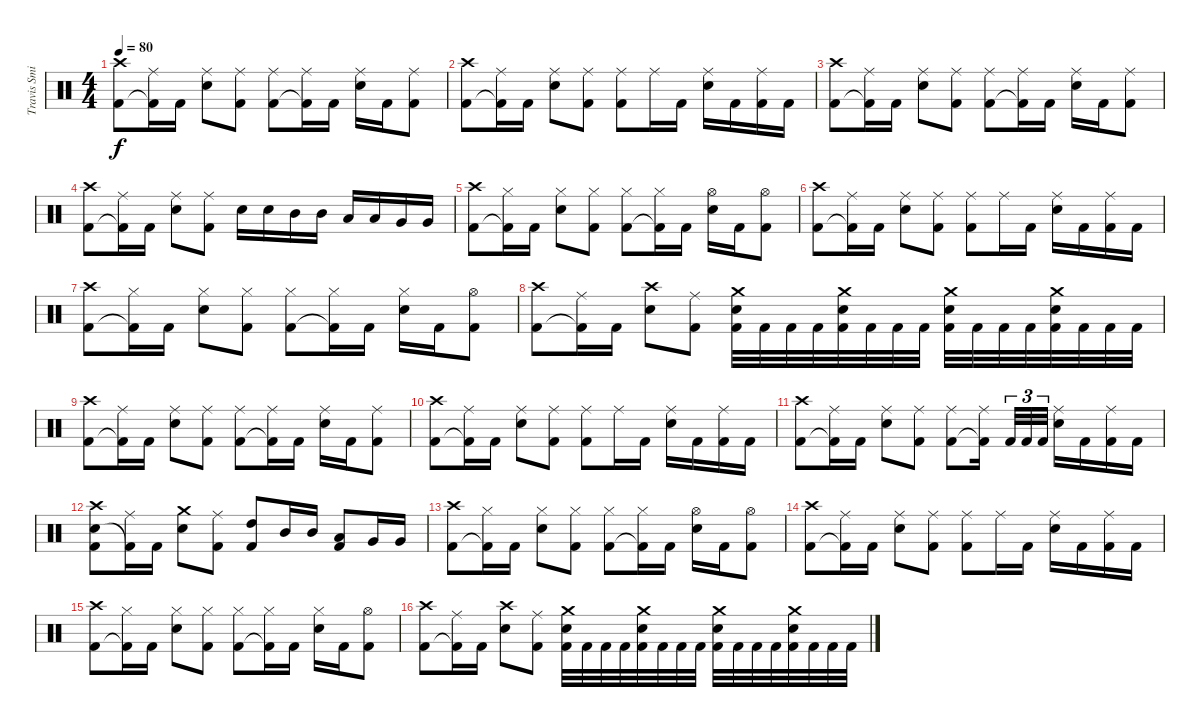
\track ("Travis Smith" "Travis Smi") {instrument percussion}
\staff {score}
\articulation defaults
\ts (4 4)
\tempo 80
\clef neutral
\ks c
("Crash high (hit)" "Kick (hit) 2").8{dy f} ("Ride (middle)" "Kick (hit) 2"{t}).16 "Kick (hit) 2".16 ("Ride (middle)" "Snare (hit) 2").8 ("Ride (middle)" "Kick (hit) 2").8 ("Ride (middle)" "Kick (hit) 2").8 ("Ride (middle)" "Kick (hit) 2"{t}).16 "Kick (hit) 2".16 ("Ride (middle)" "Snare (hit) 2").16 "Kick (hit) 2".16 ("Ride (middle)" "Kick (hit) 2").8 |
("Crash high (hit)" "Kick (hit) 2").8 ("Ride (middle)" "Kick (hit) 2"{t}).16 "Kick (hit) 2".16 ("Ride (middle)" "Snare (hit) 2").8 ("Ride (middle)" "Kick (hit) 2").8 ("Ride (middle)" "Kick (hit) 2").8 "Ride (middle)".16 "Kick (hit) 2".16 ("Ride (middle)" "Snare (hit) 2").16 "Kick (hit) 2".16 ("Ride (middle)" "Kick (hit) 2").16 "Kick (hit) 2".16 |
("Crash high (hit)" "Kick (hit) 2").8 ("Ride (middle)" "Kick (hit) 2"{t}).16 "Kick (hit) 2".16 ("Ride (middle)" "Snare (hit) 2").8 ("Ride (middle)" "Kick (hit) 2").8 ("Ride (middle)" "Kick (hit) 2").8 ("Ride (middle)" "Kick (hit) 2"{t}).16 "Kick (hit) 2".16 ("Ride (middle)" "Snare (hit) 2").16 "Kick (hit) 2".16 ("Ride (middle)" "Kick (hit) 2").8 |
("Crash high (hit)" "Kick (hit) 2").8 ("Ride (middle)" "Kick (hit) 2"{t}).16 "Kick (hit) 2".16 ("Ride (middle)" "Snare (hit) 2").8 ("Ride (middle)" "Kick (hit) 2").8 "Snare (hit) 2".16 "Snare (hit) 2".16 "Mid Tom (hit)".16 "Mid Tom (hit)".16 "Low Tom (hit)".16 "Low Tom (hit)".16 "Very Low Tom (hit)".16 "Very Low Tom (hit)".16 |
("Crash high (hit)" "Kick (hit) 2").8 ("Hi-Hat (closed)" "Kick (hit) 2"{t}).16 "Kick (hit) 2".16 ("Hi-Hat (closed)" "Snare (hit) 2").8 ("Hi-Hat (closed)" "Kick (hit) 2").8 ("Hi-Hat (closed)" "Kick (hit) 2").8 ("Hi-Hat (closed)" "Kick (hit) 2"{t}).16 "Kick (hit) 2".16 ("Hi-Hat (open)" "Snare (hit) 2").16 "Kick (hit) 2".16 ("Hi-Hat (open)" "Kick (hit) 2").8 |
("Crash high (hit)" "Kick (hit) 2").8 ("Ride (middle)" "Kick (hit) 2"{t}).16 "Kick (hit) 2".16 ("Ride (middle)" "Snare (hit) 2").8 ("Ride (middle)" "Kick (hit) 2").8 ("Ride (middle)" "Kick (hit) 2").8 "Ride (middle)".16 "Kick (hit) 2".16 ("Ride (middle)" "Snare (hit) 2").16 "Kick (hit) 2".16 ("Ride (middle)" "Kick (hit) 2").16 "Kick (hit) 2".16 |
("Crash high (hit)" "Kick (hit) 2").8 ("Hi-Hat (closed)" "Kick (hit) 2"{t}).16 "Kick (hit) 2".16 ("Hi-Hat (closed)" "Snare (hit) 2").8 ("Hi-Hat (closed)" "Kick (hit) 2").8 ("Hi-Hat (closed)" "Kick (hit) 2").8 ("Hi-Hat (closed)" "Kick (hit) 2"{t}).16 "Kick (hit) 2".16 ("Hi-Hat (closed)" "Snare (hit) 2").16 "Kick (hit) 2".16 ("Hi-Hat (open)" "Kick (hit) 2").8 |
("Crash high (hit)" "Kick (hit) 2").8 ("Ride (middle)" "Kick (hit) 2"{t}).16 "Kick (hit) 2".16 ("Crash high (hit)" "Snare (hit) 2").8 ("Ride (middle)" "Kick (hit) 2").8 ("Crash medium (hit)" "Snare (hit) 2" "Kick (hit) 2").32 "Kick (hit) 2".32 "Kick (hit) 2".32 "Kick (hit) 2".32 ("Crash medium (hit)" "Snare (hit) 2" "Kick (hit) 2").32 "Kick (hit) 2".32 "Kick (hit) 2".32 "Kick (hit) 2".32 ("Crash medium (hit)" "Snare (hit) 2" "Kick (hit) 2").32 "Kick (hit) 2".32 "Kick (hit) 2".32 "Kick (hit) 2".32 ("Crash medium (hit)" "Snare (hit) 2" "Kick (hit) 2").32 "Kick (hit) 2".32 "Kick (hit) 2".32 "Kick (hit) 2".32 |
("Crash high (hit)" "Kick (hit) 2").8 ("Ride (middle)" "Kick (hit) 2"{t}).16 "Kick (hit) 2".16 ("Ride (middle)" "Snare (hit) 2").8 ("Ride (middle)" "Kick (hit) 2").8 ("Ride (middle)" "Kick (hit) 2").8 ("Ride (middle)" "Kick (hit) 2"{t}).16 "Kick (hit) 2".16 ("Ride (middle)" "Snare (hit) 2").16 "Kick (hit) 2".16 ("Ride (middle)" "Kick (hit) 2").8 |
("Crash high (hit)" "Kick (hit) 2").8 ("Ride (middle)" "Kick (hit) 2"{t}).16 "Kick (hit) 2".16 ("Ride (middle)" "Snare (hit) 2").8 ("Ride (middle)" "Kick (hit) 2").8 ("Ride (middle)" "Kick (hit) 2").8 "Ride (middle)".16 "Kick (hit) 2".16 ("Ride (middle)" "Snare (hit) 2").16 "Kick (hit) 2".16 ("Ride (middle)" "Kick (hit) 2").16 "Kick (hit) 2".16 |
("Crash high (hit)" "Kick (hit) 2").8 ("Ride (middle)" "Kick (hit) 2"{t}).16 "Kick (hit) 2".16 ("Ride (middle)" "Snare (hit) 2").8 ("Ride (middle)" "Kick (hit) 2").8 ("Ride (middle)" "Kick (hit) 2").8 ("Ride (middle)" "Kick (hit) 2"{t}).16{beam splitsecondary} "Kick (hit) 2".32{tu (3 2)} "Kick (hit) 2".32{tu (3 2)} "Kick (hit) 2".32{tu (3 2)} ("Ride (middle)" "Snare (hit) 2").16 "Kick (hit) 2".16 ("Ride (middle)" "Kick (hit) 2").16 "Kick (hit) 2".16 |
("Crash high (hit)" "Snare (hit) 2" "Kick (hit) 2").8 ("Ride (middle)" "Kick (hit) 2"{t}).16 "Kick (hit) 2".16 ("Crash medium (hit)" "Snare (hit) 2").8 ("Ride (middle)" "Kick (hit) 2").8 ("High Tom (hit)" "Kick (hit) 2").8 "Mid Tom (hit)".16 "Mid Tom (hit)".16 ("Low Tom (hit)" "Kick (hit) 2").8 "Very Low Tom (hit)".16 "Very Low Tom (hit)".16 |
("Crash high (hit)" "Kick (hit) 2").8 ("Hi-Hat (closed)" "Kick (hit) 2"{t}).16 "Kick (hit) 2".16 ("Hi-Hat (closed)" "Snare (hit) 2").8 ("Hi-Hat (closed)" "Kick (hit) 2").8 ("Hi-Hat (closed)" "Kick (hit) 2").8 ("Hi-Hat (closed)" "Kick (hit) 2"{t}).16 "Kick (hit) 2".16 ("Hi-Hat (open)" "Snare (hit) 2").16 "Kick (hit) 2".16 ("Hi-Hat (open)" "Kick (hit) 2").8 |
("Crash high (hit)" "Kick (hit) 2").8 ("Ride (middle)" "Kick (hit) 2"{t}).16 "Kick (hit) 2".16 ("Ride (middle)" "Snare (hit) 2").8 ("Ride (middle)" "Kick (hit) 2").8 ("Ride (middle)" "Kick (hit) 2").8 "Ride (middle)".16 "Kick (hit) 2".16 ("Ride (middle)" "Snare (hit) 2").16 "Kick (hit) 2".16 ("Ride (middle)" "Kick (hit) 2").16 "Kick (hit) 2".16 |
("Crash high (hit)" "Kick (hit) 2").8 ("Hi-Hat (closed)" "Kick (hit) 2"{t}).16 "Kick (hit) 2".16 ("Hi-Hat (closed)" "Snare (hit) 2").8 ("Hi-Hat (closed)" "Kick (hit) 2").8 ("Hi-Hat (closed)" "Kick (hit) 2").8 ("Hi-Hat (closed)" "Kick (hit) 2"{t}).16 "Kick (hit) 2".16 ("Hi-Hat (closed)" "Snare (hit) 2").16 "Kick (hit) 2".16 ("Hi-Hat (open)" "Kick (hit) 2").8 |
("Crash high (hit)" "Kick (hit) 2").8 ("Ride (middle)" "Kick (hit) 2"{t}).16 "Kick (hit) 2".16 ("Crash high (hit)" "Snare (hit) 2").8 ("Ride (middle)" "Kick (hit) 2").8 ("Crash medium (hit)" "Snare (hit) 2" "Kick (hit) 2").32 "Kick (hit) 2".32 "Kick (hit) 2".32 "Kick (hit) 2".32 ("Crash medium (hit)" "Snare (hit) 2" "Kick (hit) 2").32 "Kick (hit) 2".32 "Kick (hit) 2".32 "Kick (hit) 2".32 ("Crash medium (hit)" "Snare (hit) 2" "Kick (hit) 2").32 "Kick (hit) 2".32 "Kick (hit) 2".32 "Kick (hit) 2".32 ("Crash medium (hit)" "Snare (hit) 2" "Kick (hit) 2").32 "Kick (hit) 2".32 "Kick (hit) 2".32 "Kick (hit) 2".32
